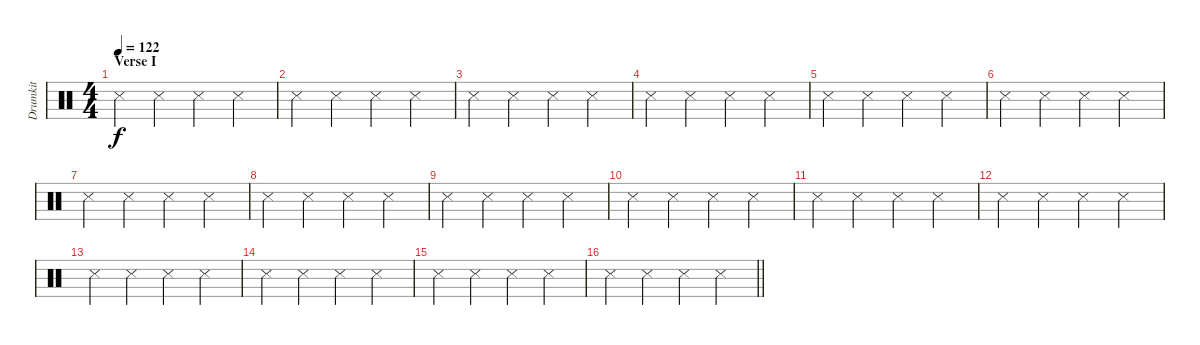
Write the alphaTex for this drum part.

\track ("Drumkit" "Drumkit") {mute instrument percussion}
\staff {score}
\articulation defaults
\ts (4 4)
\section ("" "Verse I")
\tempo 122
\clef neutral
\ks c "Snare (side stick) 3".4{dy f} "Snare (side stick) 3".4 "Snare (side stick) 3".4 "Snare (side stick) 3".4
|
"Snare (side stick) 3".4 "Snare (side stick) 3".4 "Snare (side stick) 3".4 "Snare (side stick) 3".4 |
"Snare (side stick) 3".4 "Snare (side stick) 3".4 "Snare (side stick) 3".4 "Snare (side stick) 3".4 |
"Snare (side stick) 3".4 "Snare (side stick) 3".4 "Snare (side stick) 3".4 "Snare (side stick) 3".4 |
"Snare (side stick) 3".4 "Snare (side stick) 3".4 "Snare (side stick) 3".4 "Snare (side stick) 3".4 |
"Snare (side stick) 3".4 "Snare (side stick) 3".4 "Snare (side stick) 3".4 "Snare (side stick) 3".4 |
"Snare (side stick) 3".4 "Snare (side stick) 3".4 "Snare (side stick) 3".4 "Snare (side stick) 3".4 |
"Snare (side stick) 3".4 "Snare (side stick) 3".4 "Snare (side stick) 3".4 "Snare (side stick) 3".4 |
"Snare (side stick) 3".4 "Snare (side stick) 3".4 "Snare (side stick) 3".4 "Snare (side stick) 3".4 |
"Snare (side stick) 3".4 "Snare (side stick) 3".4 "Snare (side stick) 3".4 "Snare (side stick) 3".4 |
"Snare (side stick) 3".4 "Snare (side stick) 3".4 "Snare (side stick) 3".4 "Snare (side stick) 3".4 |
"Snare (side stick) 3".4 "Snare (side stick) 3".4 "Snare (side stick) 3".4 "Snare (side stick) 3".4 |
"Snare (side stick) 3".4 "Snare (side stick) 3".4 "Snare (side stick) 3".4 "Snare (side stick) 3".4 |
"Snare (side stick) 3".4 "Snare (side stick) 3".4 "Snare (side stick) 3".4 "Snare (side stick) 3".4 |
"Snare (side stick) 3".4 "Snare (side stick) 3".4 "Snare (side stick) 3".4 "Snare (side stick) 3".4 |
\barLineRight lightlight "Snare (side stick) 3".4 "Snare (side stick) 3".4 "Snare (side stick) 3".4 "Snare (side stick) 3".4
